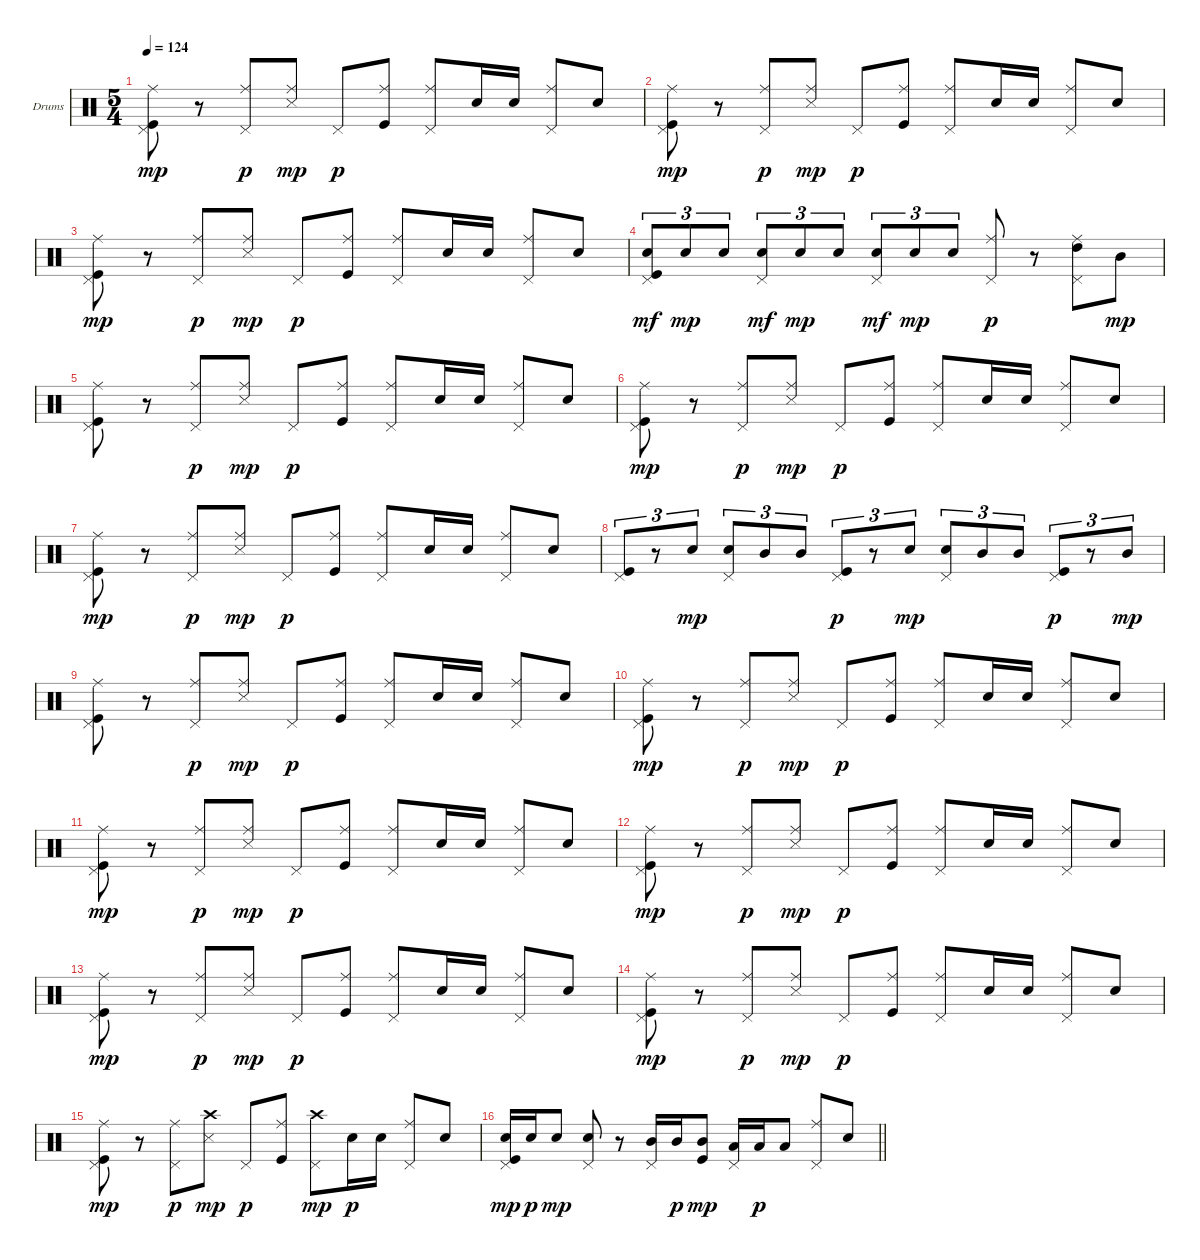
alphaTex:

\bracketExtendMode groupsimilarinstruments
\firstSystemTrackNameOrientation horizontal
\otherSystemsTrackNameOrientation horizontal
\track ("Drumkit" "Drums") {instrument percussion}
\staff {score}
\articulation defaults
\ts (5 4)
\tempo 124
\clef neutral
\ks aminor
("Ride (middle)" "Pedal Hi-Hat (hit)" "Kick (hit)").8{dy mp} r.8 ("Ride (middle)" "Pedal Hi-Hat (hit)").8{dy p} ("Ride (middle)" "Snare (side stick) 3").8{dy mp} "Pedal Hi-Hat (hit)".8{dy p} ("Ride (middle)" "Kick (hit)").8 ("Ride (middle)" "Pedal Hi-Hat (hit)").8 "Snare (hit) 2".16 "Snare (hit) 2".16 ("Ride (middle)" "Pedal Hi-Hat (hit)").8 "Snare (hit) 2".8 |
("Ride (middle)" "Pedal Hi-Hat (hit)" "Kick (hit)").8{dy mp} r.8 ("Ride (middle)" "Pedal Hi-Hat (hit)").8{dy p} ("Ride (middle)" "Snare (side stick) 3").8{dy mp} "Pedal Hi-Hat (hit)".8{dy p} ("Ride (middle)" "Kick (hit)").8 ("Ride (middle)" "Pedal Hi-Hat (hit)").8 "Snare (hit) 2".16 "Snare (hit) 2".16 ("Ride (middle)" "Pedal Hi-Hat (hit)").8 "Snare (hit) 2".8 |
("Ride (middle)" "Pedal Hi-Hat (hit)" "Kick (hit)").8{dy mp} r.8 ("Ride (middle)" "Pedal Hi-Hat (hit)").8{dy p} ("Ride (middle)" "Snare (side stick) 3").8{dy mp} "Pedal Hi-Hat (hit)".8{dy p} ("Ride (middle)" "Kick (hit)").8 ("Ride (middle)" "Pedal Hi-Hat (hit)").8 "Snare (hit) 2".16 "Snare (hit) 2".16 ("Ride (middle)" "Pedal Hi-Hat (hit)").8 "Snare (hit) 2".8 |
("Snare (hit) 2" "Pedal Hi-Hat (hit)" "Kick (hit)").8{tu (3 2) dy mf} "Snare (hit) 2".8{tu (3 2) dy mp} "Snare (hit) 2".8{tu (3 2)} ("Snare (hit) 2" "Pedal Hi-Hat (hit)").8{tu (3 2) dy mf} "Snare (hit) 2".8{tu (3 2) dy mp} "Snare (hit) 2".8{tu (3 2)} ("Snare (hit) 2" "Pedal Hi-Hat (hit)").8{tu (3 2) dy mf} "Snare (hit) 2".8{tu (3 2) dy mp} "Snare (hit) 2".8{tu (3 2)} ("Ride (middle)" "Pedal Hi-Hat (hit)").8{dy p} r.8 ("Ride (middle)" "High Tom (hit)" "Pedal Hi-Hat (hit)").8 "Mid Tom (hit)".8{dy mp} |
("Ride (middle)" "Pedal Hi-Hat (hit)" "Kick (hit)").8 r.8 ("Ride (middle)" "Pedal Hi-Hat (hit)").8{dy p} ("Ride (middle)" "Snare (side stick) 3").8{dy mp} "Pedal Hi-Hat (hit)".8{dy p} ("Ride (middle)" "Kick (hit)").8 ("Ride (middle)" "Pedal Hi-Hat (hit)").8 "Snare (hit) 2".16 "Snare (hit) 2".16 ("Ride (middle)" "Pedal Hi-Hat (hit)").8 "Snare (hit) 2".8 |
("Ride (middle)" "Pedal Hi-Hat (hit)" "Kick (hit)").8{dy mp} r.8 ("Ride (middle)" "Pedal Hi-Hat (hit)").8{dy p} ("Ride (middle)" "Snare (side stick) 3").8{dy mp} "Pedal Hi-Hat (hit)".8{dy p} ("Ride (middle)" "Kick (hit)").8 ("Ride (middle)" "Pedal Hi-Hat (hit)").8 "Snare (hit) 2".16 "Snare (hit) 2".16 ("Ride (middle)" "Pedal Hi-Hat (hit)").8 "Snare (hit) 2".8 |
("Ride (middle)" "Pedal Hi-Hat (hit)" "Kick (hit)").8{dy mp} r.8 ("Ride (middle)" "Pedal Hi-Hat (hit)").8{dy p} ("Ride (middle)" "Snare (side stick) 3").8{dy mp} "Pedal Hi-Hat (hit)".8{dy p} ("Ride (middle)" "Kick (hit)").8 ("Ride (middle)" "Pedal Hi-Hat (hit)").8 "Snare (hit) 2".16 "Snare (hit) 2".16 ("Ride (middle)" "Pedal Hi-Hat (hit)").8 "Snare (hit) 2".8 |
("Pedal Hi-Hat (hit)" "Kick (hit)").8{tu (3 2)} r.8{tu (3 2)} "Snare (hit) 2".8{tu (3 2) dy mp} ("Snare (hit) 2" "Pedal Hi-Hat (hit)").8{tu (3 2)} "Mid Tom (hit)".8{tu (3 2)} "Mid Tom (hit)".8{tu (3 2)} ("Pedal Hi-Hat (hit)" "Kick (hit)").8{tu (3 2) dy p} r.8{tu (3 2)} "Snare (hit) 2".8{tu (3 2) dy mp} ("Snare (hit) 2" "Pedal Hi-Hat (hit)").8{tu (3 2)} "Mid Tom (hit)".8{tu (3 2)} "Mid Tom (hit)".8{tu (3 2)} ("Pedal Hi-Hat (hit)" "Kick (hit)").8{tu (3 2) dy p} r.8{tu (3 2)} "Mid Tom (hit)".8{tu (3 2) dy mp} |
("Ride (middle)" "Pedal Hi-Hat (hit)" "Kick (hit)").8 r.8 ("Ride (middle)" "Pedal Hi-Hat (hit)").8{dy p} ("Ride (middle)" "Snare (side stick) 3").8{dy mp} "Pedal Hi-Hat (hit)".8{dy p} ("Ride (middle)" "Kick (hit)").8 ("Ride (middle)" "Pedal Hi-Hat (hit)").8 "Snare (hit) 2".16 "Snare (hit) 2".16 ("Ride (middle)" "Pedal Hi-Hat (hit)").8 "Snare (hit) 2".8 |
("Ride (middle)" "Pedal Hi-Hat (hit)" "Kick (hit)").8{dy mp} r.8 ("Ride (middle)" "Pedal Hi-Hat (hit)").8{dy p} ("Ride (middle)" "Snare (side stick) 3").8{dy mp} "Pedal Hi-Hat (hit)".8{dy p} ("Ride (middle)" "Kick (hit)").8 ("Ride (middle)" "Pedal Hi-Hat (hit)").8 "Snare (hit) 2".16 "Snare (hit) 2".16 ("Ride (middle)" "Pedal Hi-Hat (hit)").8 "Snare (hit) 2".8 |
("Ride (middle)" "Pedal Hi-Hat (hit)" "Kick (hit)").8{dy mp} r.8 ("Ride (middle)" "Pedal Hi-Hat (hit)").8{dy p} ("Ride (middle)" "Snare (side stick) 3").8{dy mp} "Pedal Hi-Hat (hit)".8{dy p} ("Ride (middle)" "Kick (hit)").8 ("Ride (middle)" "Pedal Hi-Hat (hit)").8 "Snare (hit) 2".16 "Snare (hit) 2".16 ("Ride (middle)" "Pedal Hi-Hat (hit)").8 "Snare (hit) 2".8 |
("Ride (middle)" "Pedal Hi-Hat (hit)" "Kick (hit)").8{dy mp} r.8 ("Ride (middle)" "Pedal Hi-Hat (hit)").8{dy p} ("Ride (middle)" "Snare (side stick) 3").8{dy mp} "Pedal Hi-Hat (hit)".8{dy p} ("Ride (middle)" "Kick (hit)").8 ("Ride (middle)" "Pedal Hi-Hat (hit)").8 "Snare (hit) 2".16 "Snare (hit) 2".16 ("Ride (middle)" "Pedal Hi-Hat (hit)").8 "Snare (hit) 2".8 |
("Ride (middle)" "Pedal Hi-Hat (hit)" "Kick (hit)").8{dy mp} r.8 ("Ride (middle)" "Pedal Hi-Hat (hit)").8{dy p} ("Ride (middle)" "Snare (side stick) 3").8{dy mp} "Pedal Hi-Hat (hit)".8{dy p} ("Ride (middle)" "Kick (hit)").8 ("Ride (middle)" "Pedal Hi-Hat (hit)").8 "Snare (hit) 2".16 "Snare (hit) 2".16 ("Ride (middle)" "Pedal Hi-Hat (hit)").8 "Snare (hit) 2".8 |
("Ride (middle)" "Pedal Hi-Hat (hit)" "Kick (hit)").8{dy mp} r.8 ("Ride (middle)" "Pedal Hi-Hat (hit)").8{dy p} ("Ride (middle)" "Snare (side stick) 3").8{dy mp} "Pedal Hi-Hat (hit)".8{dy p} ("Ride (middle)" "Kick (hit)").8 ("Ride (middle)" "Pedal Hi-Hat (hit)").8 "Snare (hit) 2".16 "Snare (hit) 2".16 ("Ride (middle)" "Pedal Hi-Hat (hit)").8 "Snare (hit) 2".8 |
("Ride (middle)" "Pedal Hi-Hat (hit)" "Kick (hit)").8{dy mp} r.8 ("Ride (middle)" "Pedal Hi-Hat (hit)").8{dy p} ("Crash high (hit)" "Snare (side stick) 3").8{dy mp} "Pedal Hi-Hat (hit)".8{dy p} ("Ride (middle)" "Kick (hit)").8 ("Crash high (hit)" "Pedal Hi-Hat (hit)").8{dy mp} "Snare (hit) 2".16{dy p} "Snare (hit) 2".16 ("Ride (middle)" "Pedal Hi-Hat (hit)").8 "Snare (hit) 2".8 |
\barLineRight lightlight
("Snare (hit) 2" "Pedal Hi-Hat (hit)" "Kick (hit)").16{dy mp} "Snare (hit) 2".16{dy p} "Snare (hit) 2".8{dy mp} ("Snare (hit) 2" "Pedal Hi-Hat (hit)").8 r.8 ("Mid Tom (hit)" "Pedal Hi-Hat (hit)").16 "Mid Tom (hit)".16{dy p} ("Mid Tom (hit)" "Kick (hit)").8{dy mp} ("Low Tom (hit)" "Pedal Hi-Hat (hit)").16 "Low Tom (hit)".16{dy p} "Low Tom (hit)".8 ("Ride (middle)" "Pedal Hi-Hat (hit)").8 "Snare (hit) 2".8
